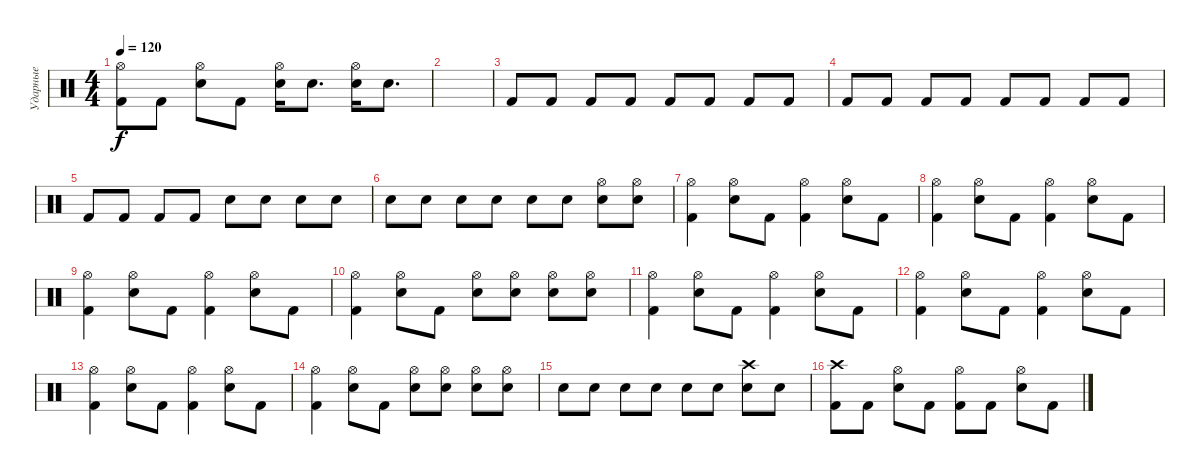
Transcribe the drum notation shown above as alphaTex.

\track ("Ударные" "Ударные") {instrument percussion}
\staff {score}
\articulation defaults
\ts (4 4)
\tempo 120
\clef neutral
\ks c
("Hi-Hat (open)" "Kick (hit) 2").8{dy f} "Kick (hit) 2".8 ("Hi-Hat (open)" "Snare (hit) 2").8 "Kick (hit) 2".8 ("Hi-Hat (open)" "Snare (hit) 2").16 "Snare (hit) 2".8{d} ("Hi-Hat (open)" "Snare (hit) 2").16 "Snare (hit) 2".8{d} |
|
"Kick (hit) 2".8 "Kick (hit) 2".8 "Kick (hit) 2".8 "Kick (hit) 2".8 "Kick (hit) 2".8 "Kick (hit) 2".8 "Kick (hit) 2".8 "Kick (hit) 2".8 |
"Kick (hit) 2".8 "Kick (hit) 2".8 "Kick (hit) 2".8 "Kick (hit) 2".8 "Kick (hit) 2".8 "Kick (hit) 2".8 "Kick (hit) 2".8 "Kick (hit) 2".8 |
"Kick (hit) 2".8 "Kick (hit) 2".8 "Kick (hit) 2".8 "Kick (hit) 2".8 "Snare (hit) 2".8 "Snare (hit) 2".8 "Snare (hit) 2".8 "Snare (hit) 2".8 |
"Snare (hit) 2".8 "Snare (hit) 2".8 "Snare (hit) 2".8 "Snare (hit) 2".8 "Snare (hit) 2".8 "Snare (hit) 2".8 ("Hi-Hat (open)" "Snare (hit) 2").8 ("Hi-Hat (open)" "Snare (hit) 2").8 |
("Hi-Hat (open)" "Kick (hit) 2").4 ("Hi-Hat (open)" "Snare (hit) 2").8 "Kick (hit) 2".8 ("Hi-Hat (open)" "Kick (hit) 2").4 ("Hi-Hat (open)" "Snare (hit) 2").8 "Kick (hit) 2".8 |
("Hi-Hat (open)" "Kick (hit) 2").4 ("Hi-Hat (open)" "Snare (hit) 2").8 "Kick (hit) 2".8 ("Hi-Hat (open)" "Kick (hit) 2").4 ("Hi-Hat (open)" "Snare (hit) 2").8 "Kick (hit) 2".8 |
("Hi-Hat (open)" "Kick (hit) 2").4 ("Hi-Hat (open)" "Snare (hit) 2").8 "Kick (hit) 2".8 ("Hi-Hat (open)" "Kick (hit) 2").4 ("Hi-Hat (open)" "Snare (hit) 2").8 "Kick (hit) 2".8 |
("Hi-Hat (open)" "Kick (hit) 2").4 ("Hi-Hat (open)" "Snare (hit) 2").8 "Kick (hit) 2".8 ("Hi-Hat (open)" "Snare (hit) 2").8 ("Hi-Hat (open)" "Snare (hit) 2").8 ("Hi-Hat (open)" "Snare (hit) 2").8 ("Hi-Hat (open)" "Snare (hit) 2").8 |
("Hi-Hat (open)" "Kick (hit) 2").4 ("Hi-Hat (open)" "Snare (hit) 2").8 "Kick (hit) 2".8 ("Hi-Hat (open)" "Kick (hit) 2").4 ("Hi-Hat (open)" "Snare (hit) 2").8 "Kick (hit) 2".8 |
("Hi-Hat (open)" "Kick (hit) 2").4 ("Hi-Hat (open)" "Snare (hit) 2").8 "Kick (hit) 2".8 ("Hi-Hat (open)" "Kick (hit) 2").4 ("Hi-Hat (open)" "Snare (hit) 2").8 "Kick (hit) 2".8 |
("Hi-Hat (open)" "Kick (hit) 2").4 ("Hi-Hat (open)" "Snare (hit) 2").8 "Kick (hit) 2".8 ("Hi-Hat (open)" "Kick (hit) 2").4 ("Hi-Hat (open)" "Snare (hit) 2").8 "Kick (hit) 2".8 |
("Hi-Hat (open)" "Kick (hit) 2").4 ("Hi-Hat (open)" "Snare (hit) 2").8 "Kick (hit) 2".8 ("Hi-Hat (open)" "Snare (hit) 2").8 ("Hi-Hat (open)" "Snare (hit) 2").8 ("Hi-Hat (open)" "Snare (hit) 2").8 ("Hi-Hat (open)" "Snare (hit) 2").8 |
"Snare (hit) 2".8 "Snare (hit) 2".8 "Snare (hit) 2".8 "Snare (hit) 2".8 "Snare (hit) 2".8 "Snare (hit) 2".8 ("Crash high (hit)" "Snare (hit) 2").8 "Snare (hit) 2".8 |
("Crash high (hit)" "Kick (hit) 2").8 "Kick (hit) 2".8 ("Hi-Hat (open)" "Snare (hit) 2").8 "Kick (hit) 2".8 ("Hi-Hat (open)" "Kick (hit) 2").8 "Kick (hit) 2".8 ("Hi-Hat (open)" "Snare (hit) 2").8 "Kick (hit) 2".8
